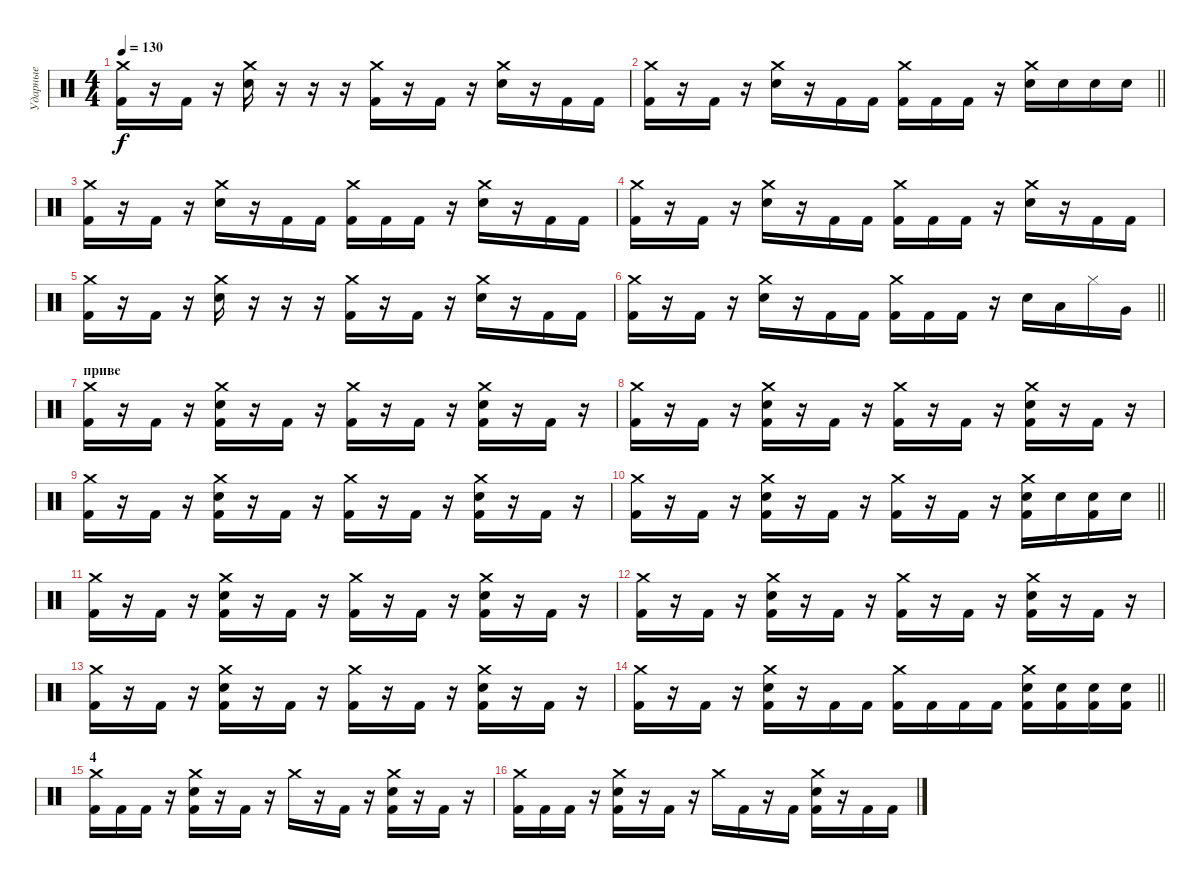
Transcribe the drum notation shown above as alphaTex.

\track ("Ударные" "Ударные") {instrument percussion}
\staff {score}
\articulation defaults
\ts (4 4)
\tempo 130
\clef neutral
\ks c
("Crash medium (hit)" "Kick (hit) 2").16{dy f} r.16 "Kick (hit) 2".16 r.16 ("Crash medium (hit)" "Snare (hit) 2").16 r.16 r.16 r.16 ("Crash medium (hit)" "Kick (hit) 2").16 r.16 "Kick (hit) 2".16 r.16 ("Crash medium (hit)" "Snare (hit) 2").16 r.16 "Kick (hit) 2".16 "Kick (hit) 2".16 |
\barLineRight lightlight
("Crash medium (hit)" "Kick (hit) 2").16 r.16 "Kick (hit) 2".16 r.16 ("Crash medium (hit)" "Snare (hit) 2").16 r.16 "Kick (hit) 2".16 "Kick (hit) 2".16 ("Crash medium (hit)" "Kick (hit) 2").16 "Kick (hit) 2".16 "Kick (hit) 2".16 r.16 ("Crash medium (hit)" "Snare (hit) 2").16 "Snare (hit) 2".16 "Snare (hit) 2".16 "Snare (hit) 2".16 |
("Crash medium (hit)" "Kick (hit) 2").16 r.16 "Kick (hit) 2".16 r.16 ("Crash medium (hit)" "Snare (hit) 2").16 r.16 "Kick (hit) 2".16 "Kick (hit) 2".16 ("Crash medium (hit)" "Kick (hit) 2").16 "Kick (hit) 2".16 "Kick (hit) 2".16 r.16 ("Crash medium (hit)" "Snare (hit) 2").16 r.16 "Kick (hit) 2".16 "Kick (hit) 2".16 |
("Crash medium (hit)" "Kick (hit) 2").16 r.16 "Kick (hit) 2".16 r.16 ("Crash medium (hit)" "Snare (hit) 2").16 r.16 "Kick (hit) 2".16 "Kick (hit) 2".16 ("Crash medium (hit)" "Kick (hit) 2").16 "Kick (hit) 2".16 "Kick (hit) 2".16 r.16 ("Crash medium (hit)" "Snare (hit) 2").16 r.16 "Kick (hit) 2".16 "Kick (hit) 2".16 |
("Crash medium (hit)" "Kick (hit) 2").16 r.16 "Kick (hit) 2".16 r.16 ("Crash medium (hit)" "Snare (hit) 2").16 r.16 r.16 r.16 ("Crash medium (hit)" "Kick (hit) 2").16 r.16 "Kick (hit) 2".16 r.16 ("Crash medium (hit)" "Snare (hit) 2").16 r.16 "Kick (hit) 2".16 "Kick (hit) 2".16 |
\barLineRight lightlight
("Crash medium (hit)" "Kick (hit) 2").16 r.16 "Kick (hit) 2".16 r.16 ("Crash medium (hit)" "Snare (hit) 2").16 r.16 "Kick (hit) 2".16 "Kick (hit) 2".16 ("Crash medium (hit)" "Kick (hit) 2").16 "Kick (hit) 2".16 "Kick (hit) 2".16 r.16 "Snare (hit) 2".16 "Low Floor Tom (hit)".16 "Hi-Hat (closed)".16 "Very Low Tom (hit)".16 |
\section ("" "приве")
("Crash medium (hit)" "Kick (hit) 2").16 r.16 "Kick (hit) 2".16 r.16 ("Crash medium (hit)" "Snare (hit) 2" "Kick (hit) 2").16 r.16 "Kick (hit) 2".16 r.16 ("Crash medium (hit)" "Kick (hit) 2").16 r.16 "Kick (hit) 2".16 r.16 ("Crash medium (hit)" "Snare (hit) 2" "Kick (hit) 2").16 r.16 "Kick (hit) 2".16 r.16 |
("Crash medium (hit)" "Kick (hit) 2").16 r.16 "Kick (hit) 2".16 r.16 ("Crash medium (hit)" "Snare (hit) 2" "Kick (hit) 2").16 r.16 "Kick (hit) 2".16 r.16 ("Crash medium (hit)" "Kick (hit) 2").16 r.16 "Kick (hit) 2".16 r.16 ("Crash medium (hit)" "Snare (hit) 2" "Kick (hit) 2").16 r.16 "Kick (hit) 2".16 r.16 |
("Crash medium (hit)" "Kick (hit) 2").16 r.16 "Kick (hit) 2".16 r.16 ("Crash medium (hit)" "Snare (hit) 2" "Kick (hit) 2").16 r.16 "Kick (hit) 2".16 r.16 ("Crash medium (hit)" "Kick (hit) 2").16 r.16 "Kick (hit) 2".16 r.16 ("Crash medium (hit)" "Snare (hit) 2" "Kick (hit) 2").16 r.16 "Kick (hit) 2".16 r.16 |
\barLineRight lightlight
("Crash medium (hit)" "Kick (hit) 2").16 r.16 "Kick (hit) 2".16 r.16 ("Crash medium (hit)" "Snare (hit) 2" "Kick (hit) 2").16 r.16 "Kick (hit) 2".16 r.16 ("Crash medium (hit)" "Kick (hit) 2").16 r.16 "Kick (hit) 2".16 r.16 ("Crash medium (hit)" "Snare (hit) 2" "Kick (hit) 2").16 "Snare (hit) 2".16 ("Snare (hit) 2" "Kick (hit) 2").16 "Snare (hit) 2".16 |
("Crash medium (hit)" "Kick (hit) 2").16 r.16 "Kick (hit) 2".16 r.16 ("Crash medium (hit)" "Snare (hit) 2" "Kick (hit) 2").16 r.16 "Kick (hit) 2".16 r.16 ("Crash medium (hit)" "Kick (hit) 2").16 r.16 "Kick (hit) 2".16 r.16 ("Crash medium (hit)" "Snare (hit) 2" "Kick (hit) 2").16 r.16 "Kick (hit) 2".16 r.16 |
("Crash medium (hit)" "Kick (hit) 2").16 r.16 "Kick (hit) 2".16 r.16 ("Crash medium (hit)" "Snare (hit) 2" "Kick (hit) 2").16 r.16 "Kick (hit) 2".16 r.16 ("Crash medium (hit)" "Kick (hit) 2").16 r.16 "Kick (hit) 2".16 r.16 ("Crash medium (hit)" "Snare (hit) 2" "Kick (hit) 2").16 r.16 "Kick (hit) 2".16 r.16 |
("Crash medium (hit)" "Kick (hit) 2").16 r.16 "Kick (hit) 2".16 r.16 ("Crash medium (hit)" "Snare (hit) 2" "Kick (hit) 2").16 r.16 "Kick (hit) 2".16 r.16 ("Crash medium (hit)" "Kick (hit) 2").16 r.16 "Kick (hit) 2".16 r.16 ("Crash medium (hit)" "Snare (hit) 2" "Kick (hit) 2").16 r.16 "Kick (hit) 2".16 r.16 |
\barLineRight lightlight
("Crash medium (hit)" "Kick (hit) 2").16 r.16 "Kick (hit) 2".16 r.16 ("Crash medium (hit)" "Snare (hit) 2" "Kick (hit) 2").16 r.16 "Kick (hit) 2".16 "Kick (hit) 2".16 ("Crash medium (hit)" "Kick (hit) 2").16 "Kick (hit) 2".16 "Kick (hit) 2".16 "Kick (hit) 2".16 ("Crash medium (hit)" "Snare (hit) 2" "Kick (hit) 2").16 ("Snare (hit) 2" "Kick (hit) 2").16 ("Snare (hit) 2" "Kick (hit) 2").16 ("Snare (hit) 2" "Kick (hit) 2").16 |
\section ("" "4")
("Crash medium (hit)" "Kick (hit) 2").16 "Kick (hit) 2".16 "Kick (hit) 2".16 r.16 ("Crash medium (hit)" "Snare (hit) 2" "Kick (hit) 2").16 r.16 "Kick (hit) 2".16 r.16 "Crash medium (hit)".16 r.16 "Kick (hit) 2".16 r.16 ("Crash medium (hit)" "Snare (hit) 2" "Kick (hit) 2").16 r.16 "Kick (hit) 2".16 r.16 |
("Crash medium (hit)" "Kick (hit) 2").16 "Kick (hit) 2".16 "Kick (hit) 2".16 r.16 ("Crash medium (hit)" "Snare (hit) 2" "Kick (hit) 2").16 r.16 "Kick (hit) 2".16 r.16 "Crash medium (hit)".16 "Kick (hit) 2".16 r.16 "Kick (hit) 2".16 ("Crash medium (hit)" "Snare (hit) 2" "Kick (hit) 2").16 r.16 "Kick (hit) 2".16 "Kick (hit) 2".16
